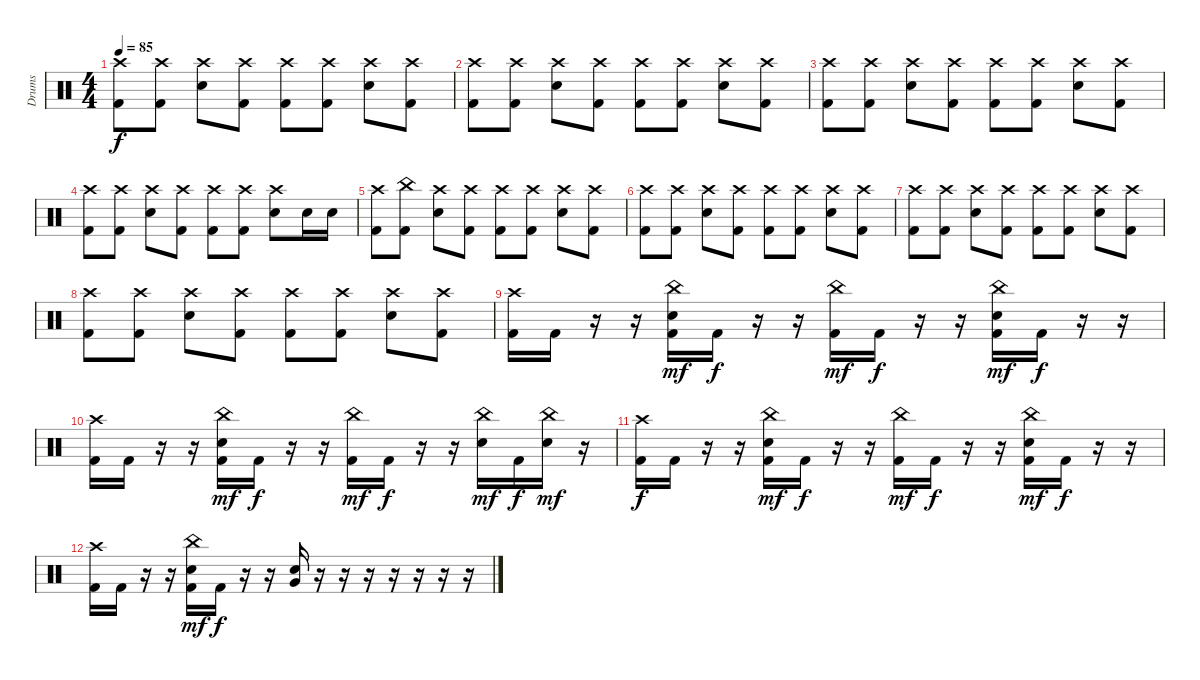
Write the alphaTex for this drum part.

\track ("Drums" "Drums") {instrument percussion}
\staff {score}
\articulation defaults
\ts (4 4)
\tempo 85
\clef neutral
\ks c
("Crash high (hit)" "Kick (hit) 2").8{dy f} ("Crash high (hit)" "Kick (hit) 2").8 ("Crash high (hit)" "Electric Snare (hit)").8 ("Crash high (hit)" "Kick (hit) 2").8 ("Crash high (hit)" "Kick (hit) 2").8 ("Crash high (hit)" "Kick (hit) 2").8 ("Crash high (hit)" "Electric Snare (hit)").8 ("Crash high (hit)" "Kick (hit) 2").8 |
("Crash high (hit)" "Kick (hit) 2").8 ("Crash high (hit)" "Kick (hit) 2").8 ("Crash high (hit)" "Electric Snare (hit)").8 ("Crash high (hit)" "Kick (hit) 2").8 ("Crash high (hit)" "Kick (hit) 2").8 ("Crash high (hit)" "Kick (hit) 2").8 ("Crash high (hit)" "Electric Snare (hit)").8 ("Crash high (hit)" "Kick (hit) 2").8 |
("Crash high (hit)" "Kick (hit) 2").8 ("Crash high (hit)" "Kick (hit) 2").8 ("Crash high (hit)" "Electric Snare (hit)").8 ("Crash high (hit)" "Kick (hit) 2").8 ("Crash high (hit)" "Kick (hit) 2").8 ("Crash high (hit)" "Kick (hit) 2").8 ("Crash high (hit)" "Electric Snare (hit)").8 ("Crash high (hit)" "Kick (hit) 2").8 |
("Crash high (hit)" "Kick (hit) 2").8 ("Crash high (hit)" "Kick (hit) 2").8 ("Crash high (hit)" "Electric Snare (hit)").8 ("Crash high (hit)" "Kick (hit) 2").8 ("Crash high (hit)" "Kick (hit) 2").8 ("Crash high (hit)" "Kick (hit) 2").8 ("Crash high (hit)" "Electric Snare (hit)").8 "Electric Snare (hit)".16 "Electric Snare (hit)".16 |
("Crash high (hit)" "Kick (hit) 2").8 ("China (hit)" "Kick (hit) 2").8 ("Crash high (hit)" "Electric Snare (hit)").8 ("Crash high (hit)" "Kick (hit) 2").8 ("Crash high (hit)" "Kick (hit) 2").8 ("Crash high (hit)" "Kick (hit) 2").8 ("Crash high (hit)" "Electric Snare (hit)").8 ("Crash high (hit)" "Kick (hit) 2").8 |
("Crash high (hit)" "Kick (hit) 2").8 ("Crash high (hit)" "Kick (hit) 2").8 ("Crash high (hit)" "Electric Snare (hit)").8 ("Crash high (hit)" "Kick (hit) 2").8 ("Crash high (hit)" "Kick (hit) 2").8 ("Crash high (hit)" "Kick (hit) 2").8 ("Crash high (hit)" "Electric Snare (hit)").8 ("Crash high (hit)" "Kick (hit) 2").8 |
("Crash high (hit)" "Kick (hit) 2").8 ("Crash high (hit)" "Kick (hit) 2").8 ("Crash high (hit)" "Electric Snare (hit)").8 ("Crash high (hit)" "Kick (hit) 2").8 ("Crash high (hit)" "Kick (hit) 2").8 ("Crash high (hit)" "Kick (hit) 2").8 ("Crash high (hit)" "Electric Snare (hit)").8 ("Crash high (hit)" "Kick (hit) 2").8 |
("Crash high (hit)" "Kick (hit) 2").8 ("Crash high (hit)" "Kick (hit) 2").8 ("Crash high (hit)" "Electric Snare (hit)").8 ("Crash high (hit)" "Kick (hit) 2").8 ("Crash high (hit)" "Kick (hit) 2").8 ("Crash high (hit)" "Kick (hit) 2").8 ("Crash high (hit)" "Electric Snare (hit)").8 ("Crash high (hit)" "Kick (hit) 2").8 |
("Crash high (hit)" "Kick (hit) 2").16 "Kick (hit) 2".16 r.16 r.16 ("China (hit)" "Electric Snare (hit)" "Kick (hit) 2").16{dy mf} "Kick (hit) 2".16{dy f} r.16 r.16 ("China (hit)" "Kick (hit) 2").16{dy mf} "Kick (hit) 2".16{dy f} r.16 r.16 ("China (hit)" "Electric Snare (hit)" "Kick (hit) 2").16{dy mf} "Kick (hit) 2".16{dy f} r.16 r.16 |
("Crash high (hit)" "Kick (hit) 2").16 "Kick (hit) 2".16 r.16 r.16 ("China (hit)" "Electric Snare (hit)" "Kick (hit) 2").16{dy mf} "Kick (hit) 2".16{dy f} r.16 r.16 ("China (hit)" "Kick (hit) 2").16{dy mf} "Kick (hit) 2".16{dy f} r.16 r.16 ("China (hit)" "Electric Snare (hit)").16{dy mf} "Kick (hit) 2".16{dy f} ("China (hit)" "Electric Snare (hit)").16{dy mf} r.16 |
("Crash high (hit)" "Kick (hit) 2").16{dy f} "Kick (hit) 2".16 r.16 r.16 ("China (hit)" "Electric Snare (hit)" "Kick (hit) 2").16{dy mf} "Kick (hit) 2".16{dy f} r.16 r.16 ("China (hit)" "Kick (hit) 2").16{dy mf} "Kick (hit) 2".16{dy f} r.16 r.16 ("China (hit)" "Electric Snare (hit)" "Kick (hit) 2").16{dy mf} "Kick (hit) 2".16{dy f} r.16 r.16 |
("Crash high (hit)" "Kick (hit) 2").16 "Kick (hit) 2".16 r.16 r.16 ("China (hit)" "Electric Snare (hit)" "Kick (hit) 2").16{dy mf} "Kick (hit) 2".16{dy f} r.16 r.16 ("Electric Snare (hit)" "Very Low Tom (hit)").16 r.16 r.16 r.16 r.16 r.16 r.16 r.16
